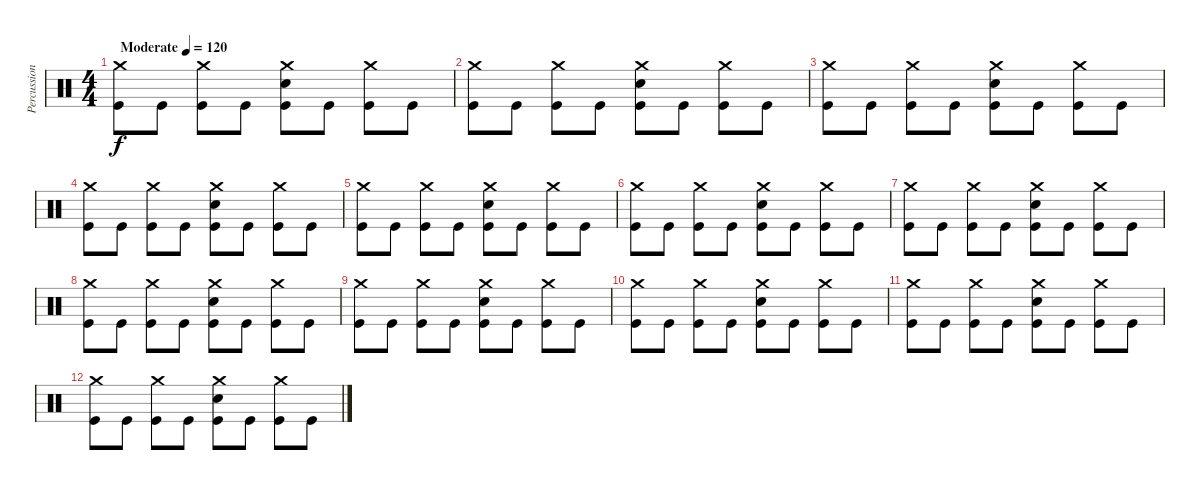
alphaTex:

\track ("Percussion" "Percussion") {instrument percussion}
\staff {score}
\articulation defaults
\ts (4 4)
\tempo (120 "Moderate")
\clef neutral
\ks c
("Crash medium (hit)" "Kick (hit)").8{dy f} "Kick (hit)".8 ("Crash medium (hit)" "Kick (hit)").8 "Kick (hit)".8 ("Crash medium (hit)" "Snare (hit) 2" "Kick (hit)").8 "Kick (hit)".8 ("Crash medium (hit)" "Kick (hit)").8 "Kick (hit)".8 |
("Crash medium (hit)" "Kick (hit)").8 "Kick (hit)".8 ("Crash medium (hit)" "Kick (hit)").8 "Kick (hit)".8 ("Crash medium (hit)" "Snare (hit) 2" "Kick (hit)").8 "Kick (hit)".8 ("Crash medium (hit)" "Kick (hit)").8 "Kick (hit)".8 |
("Crash medium (hit)" "Kick (hit)").8 "Kick (hit)".8 ("Crash medium (hit)" "Kick (hit)").8 "Kick (hit)".8 ("Crash medium (hit)" "Snare (hit) 2" "Kick (hit)").8 "Kick (hit)".8 ("Crash medium (hit)" "Kick (hit)").8 "Kick (hit)".8 |
("Crash medium (hit)" "Kick (hit)").8 "Kick (hit)".8 ("Crash medium (hit)" "Kick (hit)").8 "Kick (hit)".8 ("Crash medium (hit)" "Snare (hit) 2" "Kick (hit)").8 "Kick (hit)".8 ("Crash medium (hit)" "Kick (hit)").8 "Kick (hit)".8 |
("Crash medium (hit)" "Kick (hit)").8 "Kick (hit)".8 ("Crash medium (hit)" "Kick (hit)").8 "Kick (hit)".8 ("Crash medium (hit)" "Snare (hit) 2" "Kick (hit)").8 "Kick (hit)".8 ("Crash medium (hit)" "Kick (hit)").8 "Kick (hit)".8 |
("Crash medium (hit)" "Kick (hit)").8 "Kick (hit)".8 ("Crash medium (hit)" "Kick (hit)").8 "Kick (hit)".8 ("Crash medium (hit)" "Snare (hit) 2" "Kick (hit)").8 "Kick (hit)".8 ("Crash medium (hit)" "Kick (hit)").8 "Kick (hit)".8 |
("Crash medium (hit)" "Kick (hit)").8 "Kick (hit)".8 ("Crash medium (hit)" "Kick (hit)").8 "Kick (hit)".8 ("Crash medium (hit)" "Snare (hit) 2" "Kick (hit)").8 "Kick (hit)".8 ("Crash medium (hit)" "Kick (hit)").8 "Kick (hit)".8 |
("Crash medium (hit)" "Kick (hit)").8 "Kick (hit)".8 ("Crash medium (hit)" "Kick (hit)").8 "Kick (hit)".8 ("Crash medium (hit)" "Snare (hit) 2" "Kick (hit)").8 "Kick (hit)".8 ("Crash medium (hit)" "Kick (hit)").8 "Kick (hit)".8 |
("Crash medium (hit)" "Kick (hit)").8 "Kick (hit)".8 ("Crash medium (hit)" "Kick (hit)").8 "Kick (hit)".8 ("Crash medium (hit)" "Snare (hit) 2" "Kick (hit)").8 "Kick (hit)".8 ("Crash medium (hit)" "Kick (hit)").8 "Kick (hit)".8 |
("Crash medium (hit)" "Kick (hit)").8 "Kick (hit)".8 ("Crash medium (hit)" "Kick (hit)").8 "Kick (hit)".8 ("Crash medium (hit)" "Snare (hit) 2" "Kick (hit)").8 "Kick (hit)".8 ("Crash medium (hit)" "Kick (hit)").8 "Kick (hit)".8 |
("Crash medium (hit)" "Kick (hit)").8 "Kick (hit)".8 ("Crash medium (hit)" "Kick (hit)").8 "Kick (hit)".8 ("Crash medium (hit)" "Snare (hit) 2" "Kick (hit)").8 "Kick (hit)".8 ("Crash medium (hit)" "Kick (hit)").8 "Kick (hit)".8 |
("Crash medium (hit)" "Kick (hit)").8 "Kick (hit)".8 ("Crash medium (hit)" "Kick (hit)").8 "Kick (hit)".8 ("Crash medium (hit)" "Snare (hit) 2" "Kick (hit)").8 "Kick (hit)".8 ("Crash medium (hit)" "Kick (hit)").8 "Kick (hit)".8
